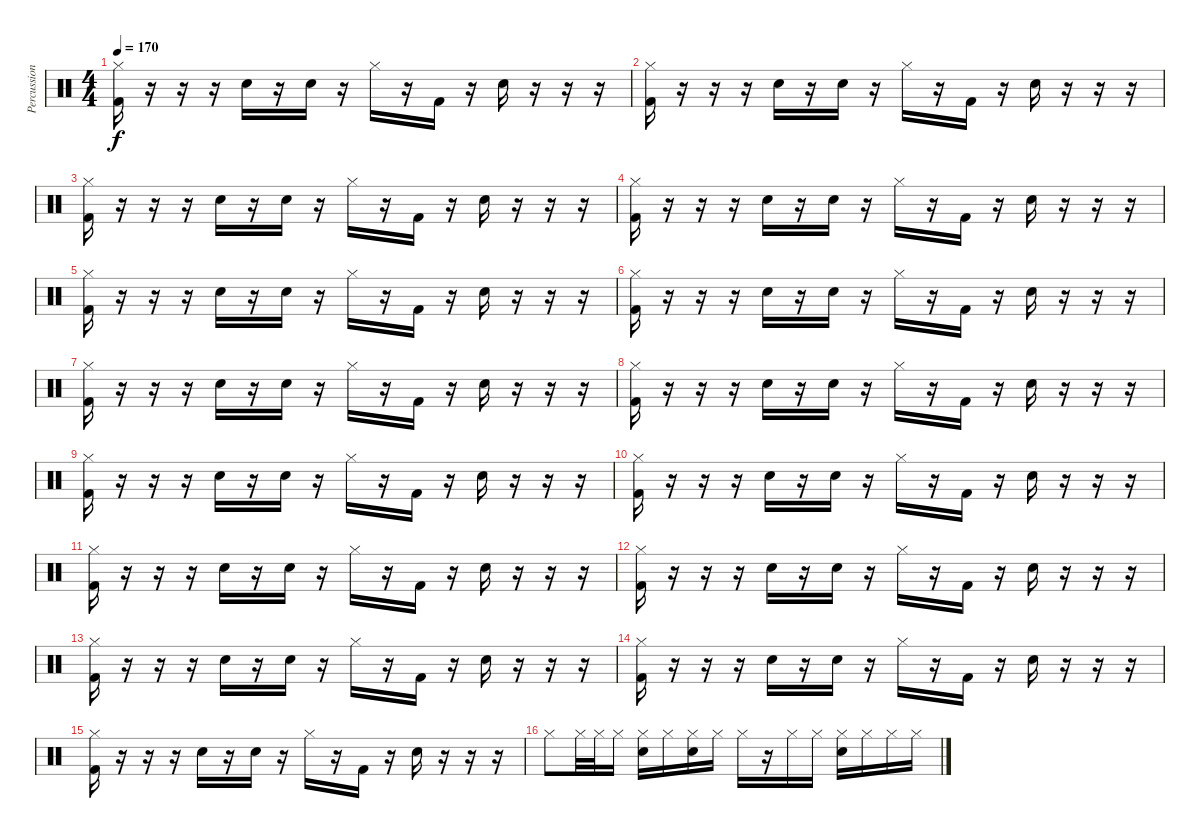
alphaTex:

\track ("Percussion" "Percussion") {instrument percussion}
\staff {score}
\articulation defaults
\ts (4 4)
\tempo 170
\clef neutral
\ks c
("Hi-Hat (closed)" "Kick (hit) 2").16{dy f} r.16 r.16 r.16 "Snare (hit) 2".16 r.16 "Snare (hit) 2".16 r.16 "Hi-Hat (closed)".16 r.16 "Kick (hit) 2".16 r.16 "Snare (hit) 2".16 r.16 r.16 r.16 |
("Hi-Hat (closed)" "Kick (hit) 2").16 r.16 r.16 r.16 "Snare (hit) 2".16 r.16 "Snare (hit) 2".16 r.16 "Hi-Hat (closed)".16 r.16 "Kick (hit) 2".16 r.16 "Snare (hit) 2".16 r.16 r.16 r.16 |
("Hi-Hat (closed)" "Kick (hit) 2").16 r.16 r.16 r.16 "Snare (hit) 2".16 r.16 "Snare (hit) 2".16 r.16 "Hi-Hat (closed)".16 r.16 "Kick (hit) 2".16 r.16 "Snare (hit) 2".16 r.16 r.16 r.16 |
("Hi-Hat (closed)" "Kick (hit) 2").16 r.16 r.16 r.16 "Snare (hit) 2".16 r.16 "Snare (hit) 2".16 r.16 "Hi-Hat (closed)".16 r.16 "Kick (hit) 2".16 r.16 "Snare (hit) 2".16 r.16 r.16 r.16 |
("Hi-Hat (closed)" "Kick (hit) 2").16 r.16 r.16 r.16 "Snare (hit) 2".16 r.16 "Snare (hit) 2".16 r.16 "Hi-Hat (closed)".16 r.16 "Kick (hit) 2".16 r.16 "Snare (hit) 2".16 r.16 r.16 r.16 |
("Hi-Hat (closed)" "Kick (hit) 2").16 r.16 r.16 r.16 "Snare (hit) 2".16 r.16 "Snare (hit) 2".16 r.16 "Hi-Hat (closed)".16 r.16 "Kick (hit) 2".16 r.16 "Snare (hit) 2".16 r.16 r.16 r.16 |
("Hi-Hat (closed)" "Kick (hit) 2").16 r.16 r.16 r.16 "Snare (hit) 2".16 r.16 "Snare (hit) 2".16 r.16 "Hi-Hat (closed)".16 r.16 "Kick (hit) 2".16 r.16 "Snare (hit) 2".16 r.16 r.16 r.16 |
("Hi-Hat (closed)" "Kick (hit) 2").16 r.16 r.16 r.16 "Snare (hit) 2".16 r.16 "Snare (hit) 2".16 r.16 "Hi-Hat (closed)".16 r.16 "Kick (hit) 2".16 r.16 "Snare (hit) 2".16 r.16 r.16 r.16 |
("Hi-Hat (closed)" "Kick (hit) 2").16 r.16 r.16 r.16 "Snare (hit) 2".16 r.16 "Snare (hit) 2".16 r.16 "Hi-Hat (closed)".16 r.16 "Kick (hit) 2".16 r.16 "Snare (hit) 2".16 r.16 r.16 r.16 |
("Hi-Hat (closed)" "Kick (hit) 2").16 r.16 r.16 r.16 "Snare (hit) 2".16 r.16 "Snare (hit) 2".16 r.16 "Hi-Hat (closed)".16 r.16 "Kick (hit) 2".16 r.16 "Snare (hit) 2".16 r.16 r.16 r.16 |
("Hi-Hat (closed)" "Kick (hit) 2").16 r.16 r.16 r.16 "Snare (hit) 2".16 r.16 "Snare (hit) 2".16 r.16 "Hi-Hat (closed)".16 r.16 "Kick (hit) 2".16 r.16 "Snare (hit) 2".16 r.16 r.16 r.16 |
("Hi-Hat (closed)" "Kick (hit) 2").16 r.16 r.16 r.16 "Snare (hit) 2".16 r.16 "Snare (hit) 2".16 r.16 "Hi-Hat (closed)".16 r.16 "Kick (hit) 2".16 r.16 "Snare (hit) 2".16 r.16 r.16 r.16 |
("Hi-Hat (closed)" "Kick (hit) 2").16 r.16 r.16 r.16 "Snare (hit) 2".16 r.16 "Snare (hit) 2".16 r.16 "Hi-Hat (closed)".16 r.16 "Kick (hit) 2".16 r.16 "Snare (hit) 2".16 r.16 r.16 r.16 |
("Hi-Hat (closed)" "Kick (hit) 2").16 r.16 r.16 r.16 "Snare (hit) 2".16 r.16 "Snare (hit) 2".16 r.16 "Hi-Hat (closed)".16 r.16 "Kick (hit) 2".16 r.16 "Snare (hit) 2".16 r.16 r.16 r.16 |
("Hi-Hat (closed)" "Kick (hit) 2").16 r.16 r.16 r.16 "Snare (hit) 2".16 r.16 "Snare (hit) 2".16 r.16 "Hi-Hat (closed)".16 r.16 "Kick (hit) 2".16 r.16 "Snare (hit) 2".16 r.16 r.16 r.16 |
"Hi-Hat (closed)".8 "Hi-Hat (closed)".32 "Hi-Hat (closed)".32 "Hi-Hat (closed)".16 ("Hi-Hat (closed)" "Hand Clap (hit)").16 "Hi-Hat (closed)".16 ("Hi-Hat (closed)" "Hand Clap (hit)").16 "Hi-Hat (closed)".16 "Hi-Hat (closed)".16 r.16 "Hi-Hat (closed)".16 "Hi-Hat (closed)".16 ("Hi-Hat (closed)" "Hand Clap (hit)").16 "Hi-Hat (closed)".16 "Hi-Hat (closed)".16 "Hi-Hat (closed)".16
